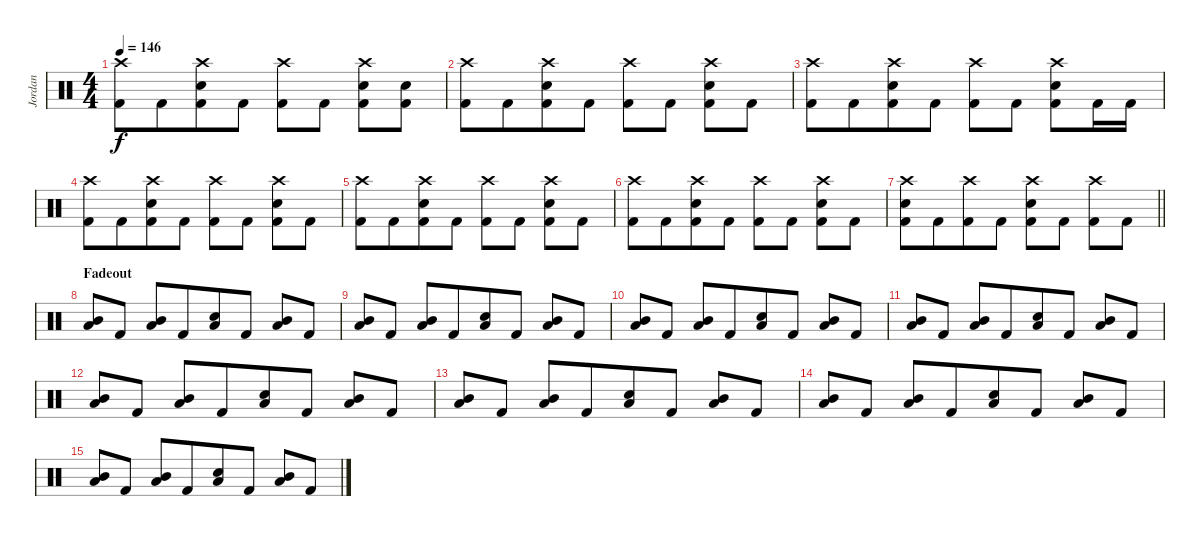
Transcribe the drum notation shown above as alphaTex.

\track ("Jordan" "Jordan") {instrument percussion}
\staff {score}
\articulation defaults
\ts (4 4)
\tempo 146
\clef neutral
\ks c
("Crash high (hit)" "Kick (hit) 2").8{dy f beam merge} "Kick (hit) 2".8{beam merge} ("Crash high (hit)" "Snare (hit) 2" "Kick (hit) 2").8{beam merge} "Kick (hit) 2".8 ("Crash high (hit)" "Kick (hit) 2").8 "Kick (hit) 2".8 ("Crash high (hit)" "Snare (hit) 2" "Kick (hit) 2").8{beam merge} ("Snare (hit) 2" "Kick (hit) 2").8 |
("Crash high (hit)" "Kick (hit) 2").8{beam merge} "Kick (hit) 2".8{beam merge} ("Crash high (hit)" "Snare (hit) 2" "Kick (hit) 2").8{beam merge} "Kick (hit) 2".8 ("Crash high (hit)" "Kick (hit) 2").8 "Kick (hit) 2".8 ("Crash high (hit)" "Snare (hit) 2" "Kick (hit) 2").8{beam merge} "Kick (hit) 2".8 |
("Crash high (hit)" "Kick (hit) 2").8{beam merge} "Kick (hit) 2".8{beam merge} ("Crash high (hit)" "Snare (hit) 2" "Kick (hit) 2").8{beam merge} "Kick (hit) 2".8 ("Crash high (hit)" "Kick (hit) 2").8 "Kick (hit) 2".8 ("Crash high (hit)" "Snare (hit) 2" "Kick (hit) 2").8{beam merge} "Kick (hit) 2".16 "Kick (hit) 2".16 |
("Crash high (hit)" "Kick (hit) 2").8{beam merge} "Kick (hit) 2".8{beam merge} ("Crash high (hit)" "Snare (hit) 2" "Kick (hit) 2").8{beam merge} "Kick (hit) 2".8 ("Crash high (hit)" "Kick (hit) 2").8 "Kick (hit) 2".8 ("Crash high (hit)" "Snare (hit) 2" "Kick (hit) 2").8{beam merge} "Kick (hit) 2".8 |
("Crash high (hit)" "Kick (hit) 2").8{beam merge} "Kick (hit) 2".8{beam merge} ("Crash high (hit)" "Snare (hit) 2" "Kick (hit) 2").8{beam merge} "Kick (hit) 2".8 ("Crash high (hit)" "Kick (hit) 2").8 "Kick (hit) 2".8 ("Crash high (hit)" "Snare (hit) 2" "Kick (hit) 2").8{beam merge} "Kick (hit) 2".8 |
("Crash high (hit)" "Kick (hit) 2").8{beam merge} "Kick (hit) 2".8{beam merge} ("Crash high (hit)" "Snare (hit) 2" "Kick (hit) 2").8{beam merge} "Kick (hit) 2".8 ("Crash high (hit)" "Kick (hit) 2").8 "Kick (hit) 2".8 ("Crash high (hit)" "Snare (hit) 2" "Kick (hit) 2").8{beam merge} "Kick (hit) 2".8 |
\barLineRight lightlight
("Crash high (hit)" "Snare (hit) 2" "Kick (hit) 2").8{beam merge} "Kick (hit) 2".8{beam merge} ("Crash high (hit)" "Kick (hit) 2").8{beam merge} "Kick (hit) 2".8 ("Crash high (hit)" "Snare (hit) 2" "Kick (hit) 2").8 "Kick (hit) 2".8 ("Crash high (hit)" "Kick (hit) 2").8{beam merge} "Kick (hit) 2".8 |
\section ("" "Fadeout")
("Mid Tom (hit)" "Low Tom (hit)").8 "Kick (hit) 2".8 ("Mid Tom (hit)" "Low Tom (hit)").8 "Kick (hit) 2".8{beam merge} ("Snare (hit) 2" "Low Tom (hit)").8{beam merge} "Kick (hit) 2".8 ("Mid Tom (hit)" "Low Tom (hit)").8 "Kick (hit) 2".8 |
("Mid Tom (hit)" "Low Tom (hit)").8 "Kick (hit) 2".8 ("Mid Tom (hit)" "Low Tom (hit)").8 "Kick (hit) 2".8{beam merge} ("Snare (hit) 2" "Low Tom (hit)").8{beam merge} "Kick (hit) 2".8 ("Mid Tom (hit)" "Low Tom (hit)").8 "Kick (hit) 2".8 |
("Mid Tom (hit)" "Low Tom (hit)").8 "Kick (hit) 2".8 ("Mid Tom (hit)" "Low Tom (hit)").8 "Kick (hit) 2".8{beam merge} ("Snare (hit) 2" "Low Tom (hit)").8{beam merge} "Kick (hit) 2".8 ("Mid Tom (hit)" "Low Tom (hit)").8 "Kick (hit) 2".8 |
("Mid Tom (hit)" "Low Tom (hit)").8 "Kick (hit) 2".8 ("Mid Tom (hit)" "Low Tom (hit)").8 "Kick (hit) 2".8{beam merge} ("Snare (hit) 2" "Low Tom (hit)").8{beam merge} "Kick (hit) 2".8 ("Mid Tom (hit)" "Low Tom (hit)").8 "Kick (hit) 2".8 |
("Mid Tom (hit)" "Low Tom (hit)").8 "Kick (hit) 2".8 ("Mid Tom (hit)" "Low Tom (hit)").8 "Kick (hit) 2".8{beam merge} ("Snare (hit) 2" "Low Tom (hit)").8{beam merge} "Kick (hit) 2".8 ("Mid Tom (hit)" "Low Tom (hit)").8 "Kick (hit) 2".8 |
("Mid Tom (hit)" "Low Tom (hit)").8 "Kick (hit) 2".8 ("Mid Tom (hit)" "Low Tom (hit)").8 "Kick (hit) 2".8{beam merge} ("Snare (hit) 2" "Low Tom (hit)").8{beam merge} "Kick (hit) 2".8 ("Mid Tom (hit)" "Low Tom (hit)").8 "Kick (hit) 2".8 |
("Mid Tom (hit)" "Low Tom (hit)").8 "Kick (hit) 2".8 ("Mid Tom (hit)" "Low Tom (hit)").8 "Kick (hit) 2".8{beam merge} ("Snare (hit) 2" "Low Tom (hit)").8{beam merge} "Kick (hit) 2".8 ("Mid Tom (hit)" "Low Tom (hit)").8 "Kick (hit) 2".8 |
("Mid Tom (hit)" "Low Tom (hit)").8 "Kick (hit) 2".8 ("Mid Tom (hit)" "Low Tom (hit)").8 "Kick (hit) 2".8{beam merge} ("Snare (hit) 2" "Low Tom (hit)").8{beam merge} "Kick (hit) 2".8 ("Mid Tom (hit)" "Low Tom (hit)").8 "Kick (hit) 2".8
